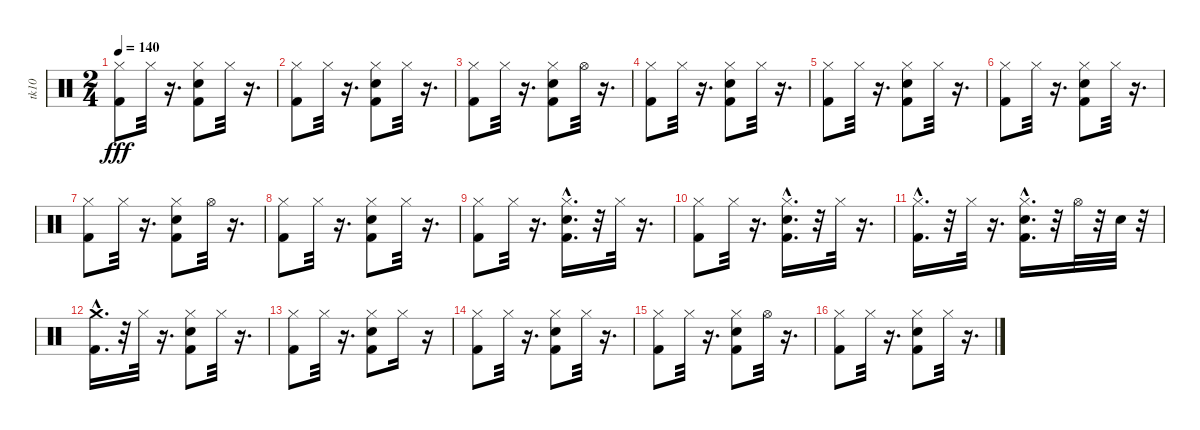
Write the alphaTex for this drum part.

\track ("tk10" "tk10") {instrument percussion}
\staff {score}
\articulation defaults
\ts (2 4)
\tempo 140
\clef neutral
\ks c
("Kick (hit) 2" "Hi-Hat (closed)").8{dy fff} "Hi-Hat (closed)".32 r.16{d} ("Kick (hit) 2" "Hi-Hat (closed)" "Snare (hit) 2").8 "Hi-Hat (closed)".32 r.16{d} |
("Kick (hit) 2" "Hi-Hat (closed)").8 "Hi-Hat (closed)".32 r.16{d} ("Snare (hit) 2" "Kick (hit) 2" "Hi-Hat (closed)").8 "Hi-Hat (closed)".32 r.16{d} |
("Kick (hit) 2" "Hi-Hat (closed)").8 "Hi-Hat (closed)".32 r.16{d} ("Snare (hit) 2" "Kick (hit) 2" "Hi-Hat (closed)").8 "Hi-Hat (open)".32 r.16{d} |
("Kick (hit) 2" "Hi-Hat (closed)").8 "Hi-Hat (closed)".32 r.16{d} ("Snare (hit) 2" "Kick (hit) 2" "Hi-Hat (closed)").8 "Hi-Hat (closed)".32 r.16{d} |
("Kick (hit) 2" "Hi-Hat (closed)").8 "Hi-Hat (closed)".32 r.16{d} ("Snare (hit) 2" "Kick (hit) 2" "Hi-Hat (closed)").8 "Hi-Hat (closed)".32 r.16{d} |
("Kick (hit) 2" "Hi-Hat (closed)").8 "Hi-Hat (closed)".32 r.16{d} ("Hi-Hat (closed)" "Snare (hit) 2" "Kick (hit) 2").8 "Hi-Hat (closed)".32 r.16{d} |
("Kick (hit) 2" "Hi-Hat (closed)").8 "Hi-Hat (closed)".32 r.16{d} ("Snare (hit) 2" "Kick (hit) 2" "Hi-Hat (closed)").8 "Hi-Hat (open)".32 r.16{d} |
("Kick (hit) 2" "Hi-Hat (closed)").8 "Hi-Hat (closed)".32 r.16{d} ("Kick (hit) 2" "Hi-Hat (closed)" "Snare (hit) 2").8 "Hi-Hat (closed)".32 r.16{d} |
("Kick (hit) 2" "Hi-Hat (closed)").8 "Hi-Hat (closed)".32 r.16{d} ("Snare (hit) 2"{hac} "Kick (hit) 2"{hac} "Hi-Hat (closed)").16{d} r.32 "Hi-Hat (closed)".32 r.16{d} |
("Kick (hit) 2" "Hi-Hat (closed)").8 "Hi-Hat (closed)".32 r.16{d} ("Snare (hit) 2"{hac} "Kick (hit) 2"{hac} "Hi-Hat (closed)").16{d} r.32 "Hi-Hat (closed)".32 r.16{d} |
("Kick (hit) 2"{hac} "Hi-Hat (closed)").16{d} r.32 "Hi-Hat (closed)".32 r.16{d} ("Hi-Hat (closed)" "Snare (hit) 2"{hac} "Kick (hit) 2"{hac}).16{d} r.32 "Hi-Hat (open)".32 r.32 "Snare (hit) 2".32 r.32 |
("Kick (hit) 2"{hac} "Crash medium (hit)").16{d} r.32 "Hi-Hat (closed)".32 r.16{d} ("Hi-Hat (closed)" "Kick (hit) 2" "Snare (hit) 2").8 "Hi-Hat (closed)".32 r.16{d} |
("Kick (hit) 2" "Hi-Hat (closed)").8 "Hi-Hat (closed)".32 r.16{d} ("Snare (hit) 2" "Kick (hit) 2" "Hi-Hat (closed)").8 "Hi-Hat (closed)".16 r.16 |
("Kick (hit) 2" "Hi-Hat (closed)").8 "Hi-Hat (closed)".32 r.16{d} ("Hi-Hat (closed)" "Snare (hit) 2" "Kick (hit) 2").8 "Hi-Hat (closed)".32 r.16{d} |
("Kick (hit) 2" "Hi-Hat (closed)").8 "Hi-Hat (closed)".32 r.16{d} ("Snare (hit) 2" "Hi-Hat (closed)" "Kick (hit) 2").8 "Hi-Hat (open)".32 r.16{d} |
("Kick (hit) 2" "Hi-Hat (closed)").8 "Hi-Hat (closed)".32 r.16{d} ("Snare (hit) 2" "Kick (hit) 2" "Hi-Hat (closed)").8 "Hi-Hat (closed)".32 r.16{d}
